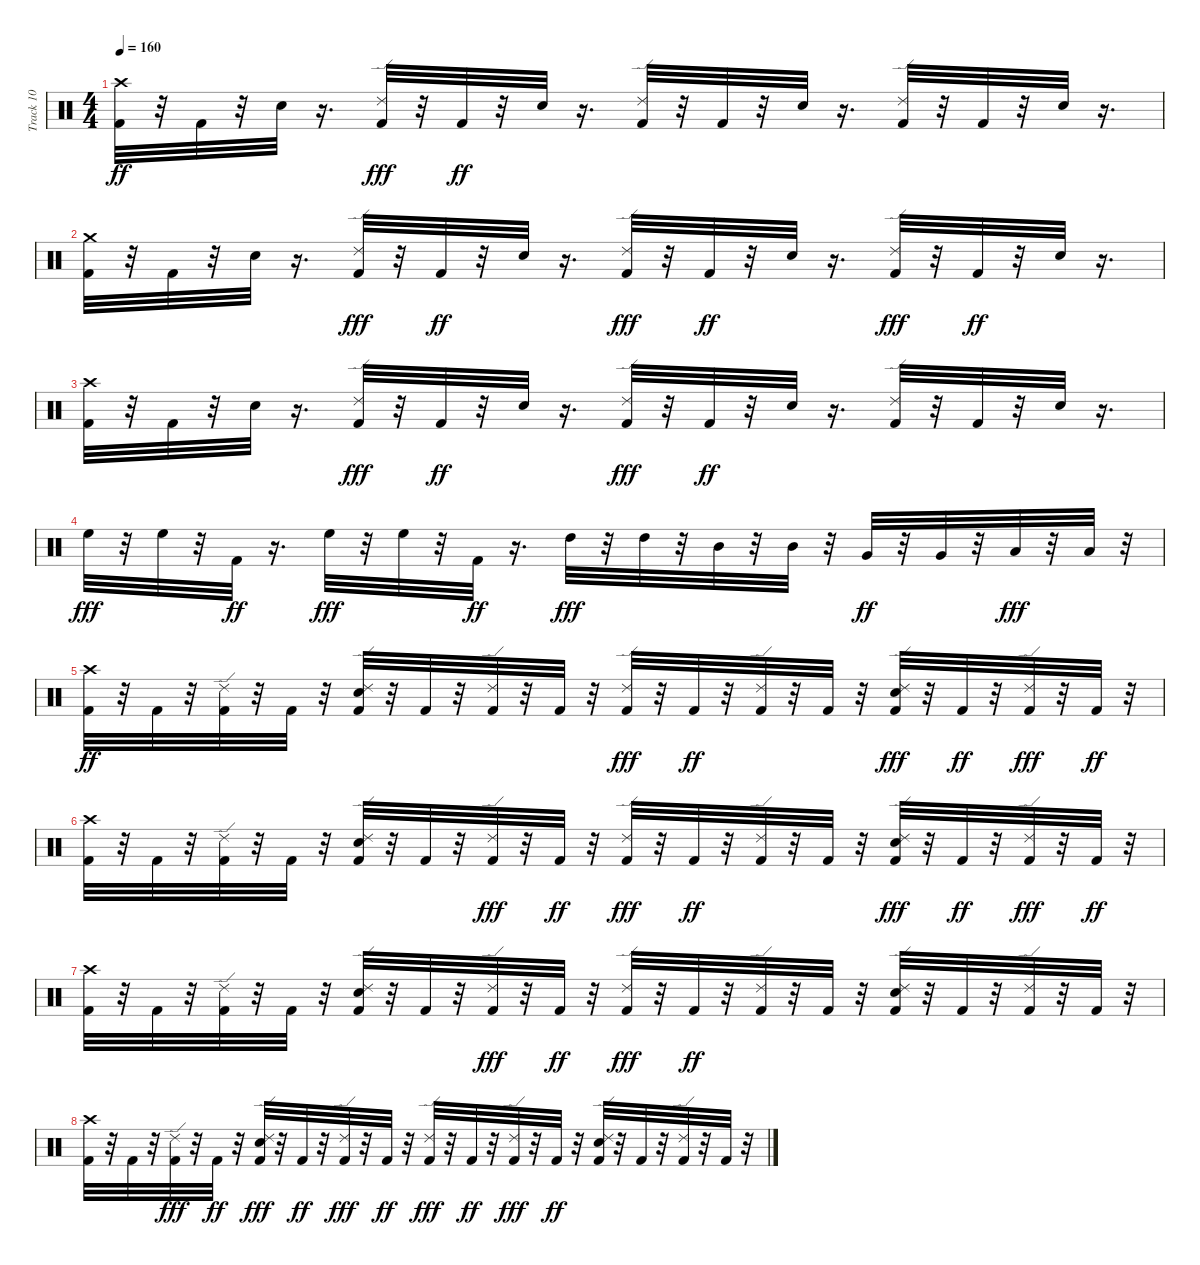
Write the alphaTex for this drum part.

\track ("Track 10" "Track 10") {instrument percussion}
\staff {score}
\articulation defaults
\ts (4 4)
\tempo 160
\clef neutral
\ks c
("Kick (hit) 2" "Crash high (hit)").32{dy ff} r.32 "Kick (hit) 2".32 r.32 "Electric Snare (hit)".32 r.16{d} ("Kick (hit) 2" "Ride (edge) 2").32{dy fff} r.32 "Kick (hit) 2".32{dy ff} r.32 "Electric Snare (hit)".32 r.16{d} ("Ride (edge) 2" "Kick (hit) 2").32 r.32 "Kick (hit) 2".32 r.32 "Electric Snare (hit)".32 r.16{d} ("Ride (edge) 2" "Kick (hit) 2").32 r.32 "Kick (hit) 2".32 r.32 "Electric Snare (hit)".32 r.16{d} |
("Kick (hit) 2" "Crash medium (hit)").32 r.32 "Kick (hit) 2".32 r.32 "Electric Snare (hit)".32 r.16{d} ("Kick (hit) 2" "Ride (edge) 2").32{dy fff} r.32 "Kick (hit) 2".32{dy ff} r.32 "Electric Snare (hit)".32 r.16{d} ("Kick (hit) 2" "Ride (edge) 2").32{dy fff} r.32 "Kick (hit) 2".32{dy ff} r.32 "Electric Snare (hit)".32 r.16{d} ("Kick (hit) 2" "Ride (edge) 2").32{dy fff} r.32 "Kick (hit) 2".32{dy ff} r.32 "Electric Snare (hit)".32 r.16{d} |
("Kick (hit) 2" "Crash high (hit)").32 r.32 "Kick (hit) 2".32 r.32 "Electric Snare (hit)".32 r.16{d} ("Kick (hit) 2" "Ride (edge) 2").32{dy fff} r.32 "Kick (hit) 2".32{dy ff} r.32 "Electric Snare (hit)".32 r.16{d} ("Kick (hit) 2" "Ride (edge) 2").32{dy fff} r.32 "Kick (hit) 2".32{dy ff} r.32 "Electric Snare (hit)".32 r.16{d} ("Ride (edge) 2" "Kick (hit) 2").32 r.32 "Kick (hit) 2".32 r.32 "Electric Snare (hit)".32 r.16{d} |
"High Floor Tom (hit)".32{dy fff} r.32 "High Floor Tom (hit)".32 r.32 "Kick (hit) 2".32{dy ff} r.16{d} "High Floor Tom (hit)".32{dy fff} r.32 "High Floor Tom (hit)".32 r.32 "Kick (hit) 2".32{dy ff} r.16{d} "High Tom (hit)".32{dy fff} r.32 "High Tom (hit)".32 r.32 "Mid Tom (hit)".32 r.32 "Mid Tom (hit)".32 r.32 "Very Low Tom (hit)".32{dy ff} r.32 "Very Low Tom (hit)".32 r.32 "Low Tom (hit)".32{dy fff} r.32 "Low Tom (hit)".32 r.32 |
("Kick (hit) 2" "Crash high (hit)").32{dy ff} r.32 "Kick (hit) 2".32 r.32 ("Ride (edge) 2" "Kick (hit) 2").32 r.32 "Kick (hit) 2".32 r.32 ("Electric Snare (hit)" "Ride (edge) 2" "Kick (hit) 2").32 r.32 "Kick (hit) 2".32 r.32 ("Ride (edge) 2" "Kick (hit) 2").32 r.32 "Kick (hit) 2".32 r.32 ("Kick (hit) 2" "Ride (edge) 2").32{dy fff} r.32 "Kick (hit) 2".32{dy ff} r.32 ("Ride (edge) 2" "Kick (hit) 2").32 r.32 "Kick (hit) 2".32 r.32 ("Electric Snare (hit)" "Kick (hit) 2" "Ride (edge) 2").32{dy fff} r.32 "Kick (hit) 2".32{dy ff} r.32 ("Kick (hit) 2" "Ride (edge) 2").32{dy fff} r.32 "Kick (hit) 2".32{dy ff} r.32 |
("Crash high (hit)" "Kick (hit) 2").32 r.32 "Kick (hit) 2".32 r.32 ("Ride (edge) 2" "Kick (hit) 2").32 r.32 "Kick (hit) 2".32 r.32 ("Electric Snare (hit)" "Ride (edge) 2" "Kick (hit) 2").32 r.32 "Kick (hit) 2".32 r.32 ("Kick (hit) 2" "Ride (edge) 2").32{dy fff} r.32 "Kick (hit) 2".32{dy ff} r.32 ("Kick (hit) 2" "Ride (edge) 2").32{dy fff} r.32 "Kick (hit) 2".32{dy ff} r.32 ("Ride (edge) 2" "Kick (hit) 2").32 r.32 "Kick (hit) 2".32 r.32 ("Kick (hit) 2" "Electric Snare (hit)" "Ride (edge) 2").32{dy fff} r.32 "Kick (hit) 2".32{dy ff} r.32 ("Kick (hit) 2" "Ride (edge) 2").32{dy fff} r.32 "Kick (hit) 2".32{dy ff} r.32 |
("Crash high (hit)" "Kick (hit) 2").32 r.32 "Kick (hit) 2".32 r.32 ("Ride (edge) 2" "Kick (hit) 2").32 r.32 "Kick (hit) 2".32 r.32 ("Kick (hit) 2" "Ride (edge) 2" "Electric Snare (hit)").32 r.32 "Kick (hit) 2".32 r.32 ("Kick (hit) 2" "Ride (edge) 2").32{dy fff} r.32 "Kick (hit) 2".32{dy ff} r.32 ("Kick (hit) 2" "Ride (edge) 2").32{dy fff} r.32 "Kick (hit) 2".32{dy ff} r.32 ("Ride (edge) 2" "Kick (hit) 2").32 r.32 "Kick (hit) 2".32 r.32 ("Electric Snare (hit)" "Ride (edge) 2" "Kick (hit) 2").32 r.32 "Kick (hit) 2".32 r.32 ("Ride (edge) 2" "Kick (hit) 2").32 r.32 "Kick (hit) 2".32 r.32 |
("Crash high (hit)" "Kick (hit) 2").32 r.32 "Kick (hit) 2".32 r.32 ("Kick (hit) 2" "Ride (edge) 2").32{dy fff} r.32 "Kick (hit) 2".32{dy ff} r.32 ("Kick (hit) 2" "Electric Snare (hit)" "Ride (edge) 2").32{dy fff} r.32 "Kick (hit) 2".32{dy ff} r.32 ("Kick (hit) 2" "Ride (edge) 2").32{dy fff} r.32 "Kick (hit) 2".32{dy ff} r.32 ("Kick (hit) 2" "Ride (edge) 2").32{dy fff} r.32 "Kick (hit) 2".32{dy ff} r.32 ("Kick (hit) 2" "Ride (edge) 2").32{dy fff} r.32 "Kick (hit) 2".32{dy ff} r.32 ("Ride (edge) 2" "Electric Snare (hit)" "Kick (hit) 2").32 r.32 "Kick (hit) 2".32 r.32 ("Ride (edge) 2" "Kick (hit) 2").32 r.32 "Kick (hit) 2".32 r.32
